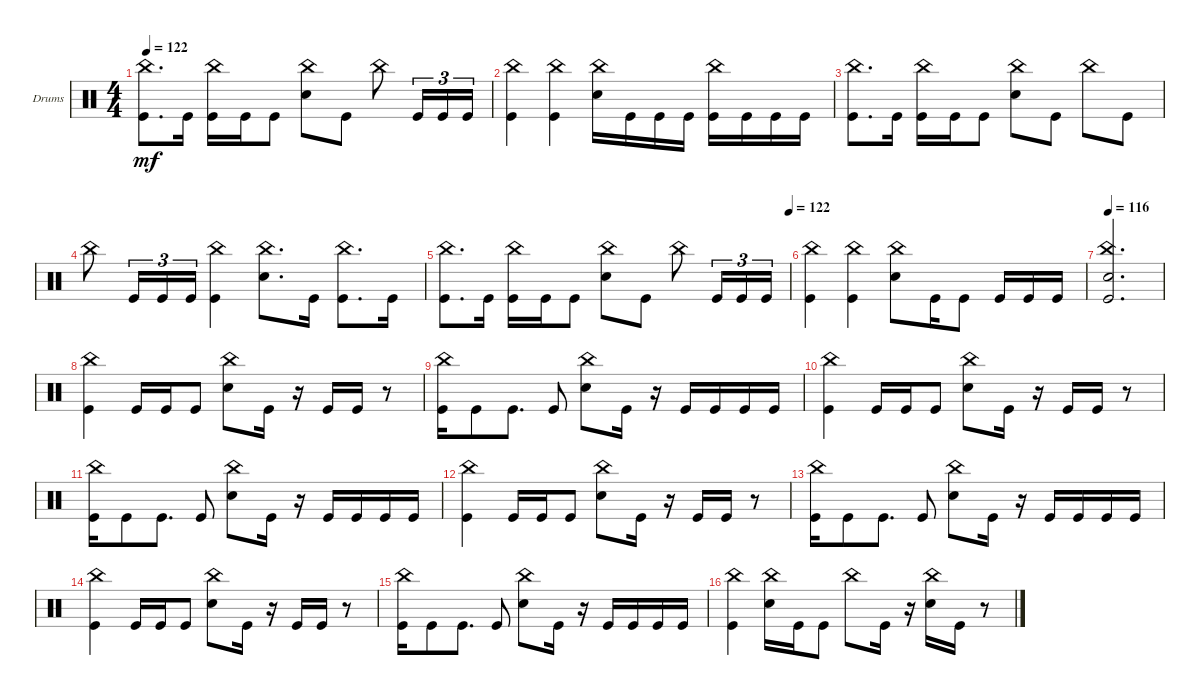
\defaultSystemsLayout 4
\bracketExtendMode groupsimilarinstruments
\firstSystemTrackNameOrientation horizontal
\otherSystemsTrackNameOrientation horizontal
\track ("Drumkit" "Drums") {instrument percussion}
\staff {score}
\articulation defaults
\ts (4 4)
\tempo 122
\clef neutral
\ks c
("Kick (hit)" "China (hit)").8{d dy mf} "Kick (hit)".16 ("Kick (hit)" "China (hit)").16 "Kick (hit)".16 "Kick (hit)".8 ("China (hit)" "Snare (hit) 2").8 "Kick (hit)".8 "China (hit)".8 "Kick (hit)".16{tu (3 2)} "Kick (hit)".16{tu (3 2)} "Kick (hit)".16{tu (3 2)} |
("Kick (hit)" "China (hit)").4 ("China (hit)" "Kick (hit)").4 ("China (hit)" "Snare (hit) 2").16 "Kick (hit)".16 "Kick (hit)".16 "Kick (hit)".16 ("China (hit)" "Kick (hit)").16 "Kick (hit)".16 "Kick (hit)".16 "Kick (hit)".16 |
("Kick (hit)" "China (hit)").8{d} "Kick (hit)".16 ("Kick (hit)" "China (hit)").16 "Kick (hit)".16 "Kick (hit)".8 ("China (hit)" "Snare (hit) 2").8 "Kick (hit)".8 "China (hit)".8 "Kick (hit)".8 |
"China (hit)".8 "Kick (hit)".16{tu (3 2)} "Kick (hit)".16{tu (3 2)} "Kick (hit)".16{tu (3 2)} ("Kick (hit)" "China (hit)").4 ("China (hit)" "Snare (hit) 2").8{d} "Kick (hit)".16 ("China (hit)" "Kick (hit)").8{d} "Kick (hit)".16 |
\tempo (122 1)
("Kick (hit)" "China (hit)").8{d} "Kick (hit)".16 ("Kick (hit)" "China (hit)").16 "Kick (hit)".16 "Kick (hit)".8 ("China (hit)" "Snare (hit) 2").8 "Kick (hit)".8 "China (hit)".8 "Kick (hit)".16{tu (3 2)} "Kick (hit)".16{tu (3 2)} "Kick (hit)".16{tu (3 2)} |
("Kick (hit)" "China (hit)").4 ("China (hit)" "Kick (hit)").4 ("China (hit)" "Snare (hit) 2").8 "Kick (hit)".16 "Kick (hit)".8 "Kick (hit)".16 "Kick (hit)".16 "Kick (hit)".16 |
\tempo 116
("Kick (hit)" "China (hit)" "Snare (hit) 2").2{d} |
("Kick (hit)" "China (hit)").4 "Kick (hit)".16 "Kick (hit)".16 "Kick (hit)".8 ("China (hit)" "Snare (hit) 2").8 "Kick (hit)".16 r.16 "Kick (hit)".16 "Kick (hit)".16 r.8 |
("Kick (hit)" "China (hit)").16 "Kick (hit)".8 "Kick (hit)".8{d} "Kick (hit)".8 ("China (hit)" "Snare (hit) 2").8 "Kick (hit)".16 r.16 "Kick (hit)".16 "Kick (hit)".16 "Kick (hit)".16 "Kick (hit)".16 |
("Kick (hit)" "China (hit)").4 "Kick (hit)".16 "Kick (hit)".16 "Kick (hit)".8 ("China (hit)" "Snare (hit) 2").8 "Kick (hit)".16 r.16 "Kick (hit)".16 "Kick (hit)".16 r.8 |
("Kick (hit)" "China (hit)").16 "Kick (hit)".8 "Kick (hit)".8{d} "Kick (hit)".8 ("China (hit)" "Snare (hit) 2").8 "Kick (hit)".16 r.16 "Kick (hit)".16 "Kick (hit)".16 "Kick (hit)".16 "Kick (hit)".16 |
("Kick (hit)" "China (hit)").4 "Kick (hit)".16 "Kick (hit)".16 "Kick (hit)".8 ("China (hit)" "Snare (hit) 2").8 "Kick (hit)".16 r.16 "Kick (hit)".16 "Kick (hit)".16 r.8 |
("Kick (hit)" "China (hit)").16 "Kick (hit)".8 "Kick (hit)".8{d} "Kick (hit)".8 ("China (hit)" "Snare (hit) 2").8 "Kick (hit)".16 r.16 "Kick (hit)".16 "Kick (hit)".16 "Kick (hit)".16 "Kick (hit)".16 |
("Kick (hit)" "China (hit)").4 "Kick (hit)".16 "Kick (hit)".16 "Kick (hit)".8 ("China (hit)" "Snare (hit) 2").8 "Kick (hit)".16 r.16 "Kick (hit)".16 "Kick (hit)".16 r.8 |
("Kick (hit)" "China (hit)").16 "Kick (hit)".8 "Kick (hit)".8{d} "Kick (hit)".8 ("China (hit)" "Snare (hit) 2").8 "Kick (hit)".16 r.16 "Kick (hit)".16 "Kick (hit)".16 "Kick (hit)".16 "Kick (hit)".16 |
("Kick (hit)" "China (hit)").4 ("China (hit)" "Snare (hit) 2").16 "Kick (hit)".16 "Kick (hit)".8 "China (hit)".8 "Kick (hit)".16 r.16 ("China (hit)" "Snare (hit) 2").16 "Kick (hit)".16 r.8
